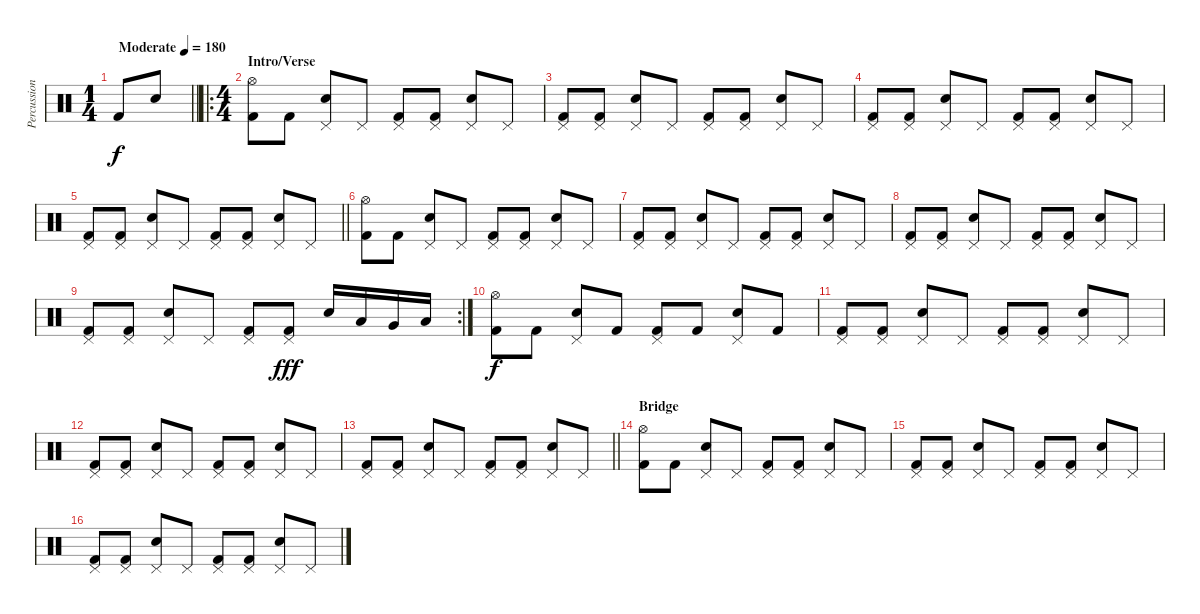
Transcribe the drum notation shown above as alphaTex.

\track ("Percussion" "Percussion") {instrument percussion}
\staff {score}
\articulation defaults
\ts (1 4)
\tempo (180 "Moderate")
\clef neutral
\barLineRight lightlight
\ks c "Kick (hit) 2".8{dy f} "Electric Snare (hit)".8
|
\ro
\ts (4 4)
\section ("" "Intro/Verse")
("Hi-Hat (open)" "Kick (hit) 2").8 "Kick (hit) 2".8 ("Pedal Hi-Hat (hit)" "Electric Snare (hit)").8 "Pedal Hi-Hat (hit)".8 ("Pedal Hi-Hat (hit)" "Kick (hit) 2").8 ("Pedal Hi-Hat (hit)" "Kick (hit) 2").8 ("Pedal Hi-Hat (hit)" "Electric Snare (hit)").8 "Pedal Hi-Hat (hit)".8 |
("Pedal Hi-Hat (hit)" "Kick (hit) 2").8 ("Pedal Hi-Hat (hit)" "Kick (hit) 2").8 ("Pedal Hi-Hat (hit)" "Electric Snare (hit)").8 "Pedal Hi-Hat (hit)".8 ("Pedal Hi-Hat (hit)" "Kick (hit) 2").8 ("Pedal Hi-Hat (hit)" "Kick (hit) 2").8 ("Pedal Hi-Hat (hit)" "Electric Snare (hit)").8 "Pedal Hi-Hat (hit)".8 |
("Pedal Hi-Hat (hit)" "Kick (hit) 2").8 ("Pedal Hi-Hat (hit)" "Kick (hit) 2").8 ("Pedal Hi-Hat (hit)" "Electric Snare (hit)").8 "Pedal Hi-Hat (hit)".8 ("Pedal Hi-Hat (hit)" "Kick (hit) 2").8 ("Pedal Hi-Hat (hit)" "Kick (hit) 2").8 ("Pedal Hi-Hat (hit)" "Electric Snare (hit)").8 "Pedal Hi-Hat (hit)".8 |
\barLineRight lightlight
("Pedal Hi-Hat (hit)" "Kick (hit) 2").8 ("Pedal Hi-Hat (hit)" "Kick (hit) 2").8 ("Pedal Hi-Hat (hit)" "Electric Snare (hit)").8 "Pedal Hi-Hat (hit)".8 ("Pedal Hi-Hat (hit)" "Kick (hit) 2").8 ("Pedal Hi-Hat (hit)" "Kick (hit) 2").8 ("Pedal Hi-Hat (hit)" "Electric Snare (hit)").8 "Pedal Hi-Hat (hit)".8 |
("Hi-Hat (open)" "Kick (hit) 2").8 "Kick (hit) 2".8 ("Pedal Hi-Hat (hit)" "Electric Snare (hit)").8 "Pedal Hi-Hat (hit)".8 ("Pedal Hi-Hat (hit)" "Kick (hit) 2").8 ("Pedal Hi-Hat (hit)" "Kick (hit) 2").8 ("Pedal Hi-Hat (hit)" "Electric Snare (hit)").8 "Pedal Hi-Hat (hit)".8 |
("Pedal Hi-Hat (hit)" "Kick (hit) 2").8 ("Pedal Hi-Hat (hit)" "Kick (hit) 2").8 ("Pedal Hi-Hat (hit)" "Electric Snare (hit)").8 "Pedal Hi-Hat (hit)".8 ("Pedal Hi-Hat (hit)" "Kick (hit) 2").8 ("Pedal Hi-Hat (hit)" "Kick (hit) 2").8 ("Pedal Hi-Hat (hit)" "Electric Snare (hit)").8 "Pedal Hi-Hat (hit)".8 |
("Pedal Hi-Hat (hit)" "Kick (hit) 2").8 ("Pedal Hi-Hat (hit)" "Kick (hit) 2").8 ("Pedal Hi-Hat (hit)" "Electric Snare (hit)").8 "Pedal Hi-Hat (hit)".8 ("Pedal Hi-Hat (hit)" "Kick (hit) 2").8 ("Pedal Hi-Hat (hit)" "Kick (hit) 2").8 ("Pedal Hi-Hat (hit)" "Electric Snare (hit)").8 "Pedal Hi-Hat (hit)".8 |
\rc 2
("Pedal Hi-Hat (hit)" "Kick (hit) 2").8 ("Pedal Hi-Hat (hit)" "Kick (hit) 2").8 ("Pedal Hi-Hat (hit)" "Electric Snare (hit)").8 "Pedal Hi-Hat (hit)".8 ("Pedal Hi-Hat (hit)" "Kick (hit) 2").8 ("Pedal Hi-Hat (hit)" "Kick (hit) 2").8{dy fff} "Electric Snare (hit)".16 "Low Tom (hit)".16 "Very Low Tom (hit)".16 "Low Floor Tom (hit)".16 |
("Hi-Hat (open)" "Kick (hit) 2").8{dy f} "Kick (hit) 2".8 ("Pedal Hi-Hat (hit)" "Electric Snare (hit)").8 "Kick (hit) 2".8 ("Pedal Hi-Hat (hit)" "Kick (hit) 2").8 "Kick (hit) 2".8 ("Pedal Hi-Hat (hit)" "Electric Snare (hit)").8 "Kick (hit) 2".8 |
("Pedal Hi-Hat (hit)" "Kick (hit) 2").8 ("Pedal Hi-Hat (hit)" "Kick (hit) 2").8 ("Pedal Hi-Hat (hit)" "Electric Snare (hit)").8 "Pedal Hi-Hat (hit)".8 ("Pedal Hi-Hat (hit)" "Kick (hit) 2").8 ("Pedal Hi-Hat (hit)" "Kick (hit) 2").8 ("Pedal Hi-Hat (hit)" "Electric Snare (hit)").8 "Pedal Hi-Hat (hit)".8 |
("Pedal Hi-Hat (hit)" "Kick (hit) 2").8 ("Pedal Hi-Hat (hit)" "Kick (hit) 2").8 ("Pedal Hi-Hat (hit)" "Electric Snare (hit)").8 "Pedal Hi-Hat (hit)".8 ("Pedal Hi-Hat (hit)" "Kick (hit) 2").8 ("Pedal Hi-Hat (hit)" "Kick (hit) 2").8 ("Pedal Hi-Hat (hit)" "Electric Snare (hit)").8 "Pedal Hi-Hat (hit)".8 |
\barLineRight lightlight
("Pedal Hi-Hat (hit)" "Kick (hit) 2").8 ("Pedal Hi-Hat (hit)" "Kick (hit) 2").8 ("Pedal Hi-Hat (hit)" "Electric Snare (hit)").8 "Pedal Hi-Hat (hit)".8 ("Pedal Hi-Hat (hit)" "Kick (hit) 2").8 ("Pedal Hi-Hat (hit)" "Kick (hit) 2").8 ("Pedal Hi-Hat (hit)" "Electric Snare (hit)").8 "Pedal Hi-Hat (hit)".8 |
\section ("" "Bridge")
("Hi-Hat (open)" "Kick (hit) 2").8 "Kick (hit) 2".8 ("Pedal Hi-Hat (hit)" "Electric Snare (hit)").8 "Pedal Hi-Hat (hit)".8 ("Pedal Hi-Hat (hit)" "Kick (hit) 2").8 ("Pedal Hi-Hat (hit)" "Kick (hit) 2").8 ("Pedal Hi-Hat (hit)" "Electric Snare (hit)").8 "Pedal Hi-Hat (hit)".8 |
("Pedal Hi-Hat (hit)" "Kick (hit) 2").8 ("Pedal Hi-Hat (hit)" "Kick (hit) 2").8 ("Pedal Hi-Hat (hit)" "Electric Snare (hit)").8 "Pedal Hi-Hat (hit)".8 ("Pedal Hi-Hat (hit)" "Kick (hit) 2").8 ("Pedal Hi-Hat (hit)" "Kick (hit) 2").8 ("Pedal Hi-Hat (hit)" "Electric Snare (hit)").8 "Pedal Hi-Hat (hit)".8 |
("Pedal Hi-Hat (hit)" "Kick (hit) 2").8 ("Pedal Hi-Hat (hit)" "Kick (hit) 2").8 ("Pedal Hi-Hat (hit)" "Electric Snare (hit)").8 "Pedal Hi-Hat (hit)".8 ("Pedal Hi-Hat (hit)" "Kick (hit) 2").8 ("Pedal Hi-Hat (hit)" "Kick (hit) 2").8 ("Pedal Hi-Hat (hit)" "Electric Snare (hit)").8 "Pedal Hi-Hat (hit)".8
